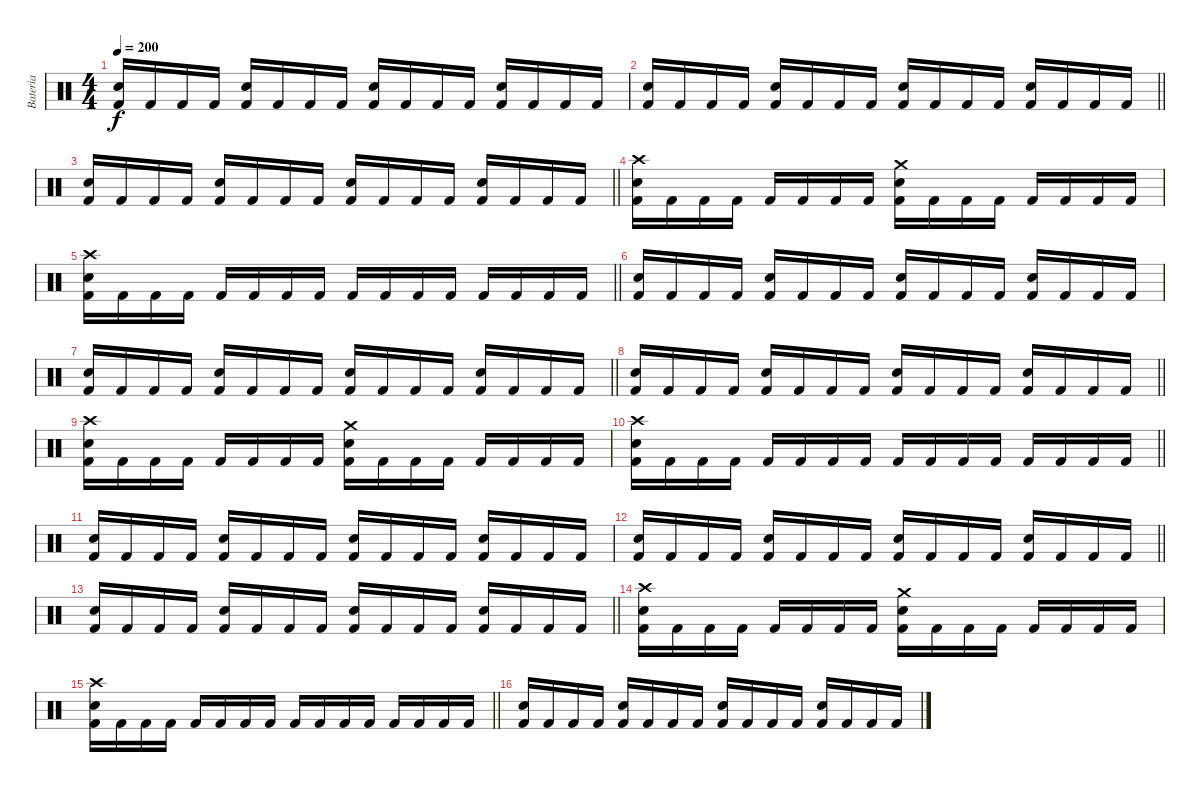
\track ("Bateria" "Bateria") {instrument percussion}
\staff {score}
\articulation defaults
\ts (4 4)
\tempo 200
\clef neutral
\ks c
("Electric Snare (hit)" "Kick (hit) 2").16{dy f} "Kick (hit) 2".16 "Kick (hit) 2".16 "Kick (hit) 2".16 ("Electric Snare (hit)" "Kick (hit) 2").16 "Kick (hit) 2".16 "Kick (hit) 2".16 "Kick (hit) 2".16 ("Electric Snare (hit)" "Kick (hit) 2").16 "Kick (hit) 2".16 "Kick (hit) 2".16 "Kick (hit) 2".16 ("Electric Snare (hit)" "Kick (hit) 2").16 "Kick (hit) 2".16 "Kick (hit) 2".16 "Kick (hit) 2".16 |
\barLineRight lightlight
("Electric Snare (hit)" "Kick (hit) 2").16 "Kick (hit) 2".16 "Kick (hit) 2".16 "Kick (hit) 2".16 ("Electric Snare (hit)" "Kick (hit) 2").16 "Kick (hit) 2".16 "Kick (hit) 2".16 "Kick (hit) 2".16 ("Electric Snare (hit)" "Kick (hit) 2").16 "Kick (hit) 2".16 "Kick (hit) 2".16 "Kick (hit) 2".16 ("Electric Snare (hit)" "Kick (hit) 2").16 "Kick (hit) 2".16 "Kick (hit) 2".16 "Kick (hit) 2".16 |
\barLineRight lightlight
("Electric Snare (hit)" "Kick (hit) 2").16 "Kick (hit) 2".16 "Kick (hit) 2".16 "Kick (hit) 2".16 ("Electric Snare (hit)" "Kick (hit) 2").16 "Kick (hit) 2".16 "Kick (hit) 2".16 "Kick (hit) 2".16 ("Electric Snare (hit)" "Kick (hit) 2").16 "Kick (hit) 2".16 "Kick (hit) 2".16 "Kick (hit) 2".16 ("Electric Snare (hit)" "Kick (hit) 2").16 "Kick (hit) 2".16 "Kick (hit) 2".16 "Kick (hit) 2".16 |
("Crash high (hit)" "Electric Snare (hit)" "Kick (hit) 2").16 "Kick (hit) 2".16 "Kick (hit) 2".16 "Kick (hit) 2".16 "Kick (hit) 2".16 "Kick (hit) 2".16 "Kick (hit) 2".16 "Kick (hit) 2".16 ("Crash medium (hit)" "Electric Snare (hit)" "Kick (hit) 2").16 "Kick (hit) 2".16 "Kick (hit) 2".16 "Kick (hit) 2".16 "Kick (hit) 2".16 "Kick (hit) 2".16 "Kick (hit) 2".16 "Kick (hit) 2".16 |
\barLineRight lightlight
("Crash high (hit)" "Electric Snare (hit)" "Kick (hit) 2").16 "Kick (hit) 2".16 "Kick (hit) 2".16 "Kick (hit) 2".16 "Kick (hit) 2".16 "Kick (hit) 2".16 "Kick (hit) 2".16 "Kick (hit) 2".16 "Kick (hit) 2".16 "Kick (hit) 2".16 "Kick (hit) 2".16 "Kick (hit) 2".16 "Kick (hit) 2".16 "Kick (hit) 2".16 "Kick (hit) 2".16 "Kick (hit) 2".16 |
("Electric Snare (hit)" "Kick (hit) 2").16 "Kick (hit) 2".16 "Kick (hit) 2".16 "Kick (hit) 2".16 ("Electric Snare (hit)" "Kick (hit) 2").16 "Kick (hit) 2".16 "Kick (hit) 2".16 "Kick (hit) 2".16 ("Electric Snare (hit)" "Kick (hit) 2").16 "Kick (hit) 2".16 "Kick (hit) 2".16 "Kick (hit) 2".16 ("Electric Snare (hit)" "Kick (hit) 2").16 "Kick (hit) 2".16 "Kick (hit) 2".16 "Kick (hit) 2".16 |
\barLineRight lightlight
("Electric Snare (hit)" "Kick (hit) 2").16 "Kick (hit) 2".16 "Kick (hit) 2".16 "Kick (hit) 2".16 ("Electric Snare (hit)" "Kick (hit) 2").16 "Kick (hit) 2".16 "Kick (hit) 2".16 "Kick (hit) 2".16 ("Electric Snare (hit)" "Kick (hit) 2").16 "Kick (hit) 2".16 "Kick (hit) 2".16 "Kick (hit) 2".16 ("Electric Snare (hit)" "Kick (hit) 2").16 "Kick (hit) 2".16 "Kick (hit) 2".16 "Kick (hit) 2".16 |
\barLineRight lightlight
("Electric Snare (hit)" "Kick (hit) 2").16 "Kick (hit) 2".16 "Kick (hit) 2".16 "Kick (hit) 2".16 ("Electric Snare (hit)" "Kick (hit) 2").16 "Kick (hit) 2".16 "Kick (hit) 2".16 "Kick (hit) 2".16 ("Electric Snare (hit)" "Kick (hit) 2").16 "Kick (hit) 2".16 "Kick (hit) 2".16 "Kick (hit) 2".16 ("Electric Snare (hit)" "Kick (hit) 2").16 "Kick (hit) 2".16 "Kick (hit) 2".16 "Kick (hit) 2".16 |
("Crash high (hit)" "Electric Snare (hit)" "Kick (hit) 2").16 "Kick (hit) 2".16 "Kick (hit) 2".16 "Kick (hit) 2".16 "Kick (hit) 2".16 "Kick (hit) 2".16 "Kick (hit) 2".16 "Kick (hit) 2".16 ("Crash medium (hit)" "Electric Snare (hit)" "Kick (hit) 2").16 "Kick (hit) 2".16 "Kick (hit) 2".16 "Kick (hit) 2".16 "Kick (hit) 2".16 "Kick (hit) 2".16 "Kick (hit) 2".16 "Kick (hit) 2".16 |
\barLineRight lightlight
("Crash high (hit)" "Electric Snare (hit)" "Kick (hit) 2").16 "Kick (hit) 2".16 "Kick (hit) 2".16 "Kick (hit) 2".16 "Kick (hit) 2".16 "Kick (hit) 2".16 "Kick (hit) 2".16 "Kick (hit) 2".16 "Kick (hit) 2".16 "Kick (hit) 2".16 "Kick (hit) 2".16 "Kick (hit) 2".16 "Kick (hit) 2".16 "Kick (hit) 2".16 "Kick (hit) 2".16 "Kick (hit) 2".16 |
("Electric Snare (hit)" "Kick (hit) 2").16 "Kick (hit) 2".16 "Kick (hit) 2".16 "Kick (hit) 2".16 ("Electric Snare (hit)" "Kick (hit) 2").16 "Kick (hit) 2".16 "Kick (hit) 2".16 "Kick (hit) 2".16 ("Electric Snare (hit)" "Kick (hit) 2").16 "Kick (hit) 2".16 "Kick (hit) 2".16 "Kick (hit) 2".16 ("Electric Snare (hit)" "Kick (hit) 2").16 "Kick (hit) 2".16 "Kick (hit) 2".16 "Kick (hit) 2".16 |
\barLineRight lightlight
("Electric Snare (hit)" "Kick (hit) 2").16 "Kick (hit) 2".16 "Kick (hit) 2".16 "Kick (hit) 2".16 ("Electric Snare (hit)" "Kick (hit) 2").16 "Kick (hit) 2".16 "Kick (hit) 2".16 "Kick (hit) 2".16 ("Electric Snare (hit)" "Kick (hit) 2").16 "Kick (hit) 2".16 "Kick (hit) 2".16 "Kick (hit) 2".16 ("Electric Snare (hit)" "Kick (hit) 2").16 "Kick (hit) 2".16 "Kick (hit) 2".16 "Kick (hit) 2".16 |
\barLineRight lightlight
("Electric Snare (hit)" "Kick (hit) 2").16 "Kick (hit) 2".16 "Kick (hit) 2".16 "Kick (hit) 2".16 ("Electric Snare (hit)" "Kick (hit) 2").16 "Kick (hit) 2".16 "Kick (hit) 2".16 "Kick (hit) 2".16 ("Electric Snare (hit)" "Kick (hit) 2").16 "Kick (hit) 2".16 "Kick (hit) 2".16 "Kick (hit) 2".16 ("Electric Snare (hit)" "Kick (hit) 2").16 "Kick (hit) 2".16 "Kick (hit) 2".16 "Kick (hit) 2".16 |
("Crash high (hit)" "Electric Snare (hit)" "Kick (hit) 2").16 "Kick (hit) 2".16 "Kick (hit) 2".16 "Kick (hit) 2".16 "Kick (hit) 2".16 "Kick (hit) 2".16 "Kick (hit) 2".16 "Kick (hit) 2".16 ("Crash medium (hit)" "Electric Snare (hit)" "Kick (hit) 2").16 "Kick (hit) 2".16 "Kick (hit) 2".16 "Kick (hit) 2".16 "Kick (hit) 2".16 "Kick (hit) 2".16 "Kick (hit) 2".16 "Kick (hit) 2".16 |
\barLineRight lightlight
("Crash high (hit)" "Electric Snare (hit)" "Kick (hit) 2").16 "Kick (hit) 2".16 "Kick (hit) 2".16 "Kick (hit) 2".16 "Kick (hit) 2".16 "Kick (hit) 2".16 "Kick (hit) 2".16 "Kick (hit) 2".16 "Kick (hit) 2".16 "Kick (hit) 2".16 "Kick (hit) 2".16 "Kick (hit) 2".16 "Kick (hit) 2".16 "Kick (hit) 2".16 "Kick (hit) 2".16 "Kick (hit) 2".16 |
("Electric Snare (hit)" "Kick (hit) 2").16 "Kick (hit) 2".16 "Kick (hit) 2".16 "Kick (hit) 2".16 ("Electric Snare (hit)" "Kick (hit) 2").16 "Kick (hit) 2".16 "Kick (hit) 2".16 "Kick (hit) 2".16 ("Electric Snare (hit)" "Kick (hit) 2").16 "Kick (hit) 2".16 "Kick (hit) 2".16 "Kick (hit) 2".16 ("Electric Snare (hit)" "Kick (hit) 2").16 "Kick (hit) 2".16 "Kick (hit) 2".16 "Kick (hit) 2".16
